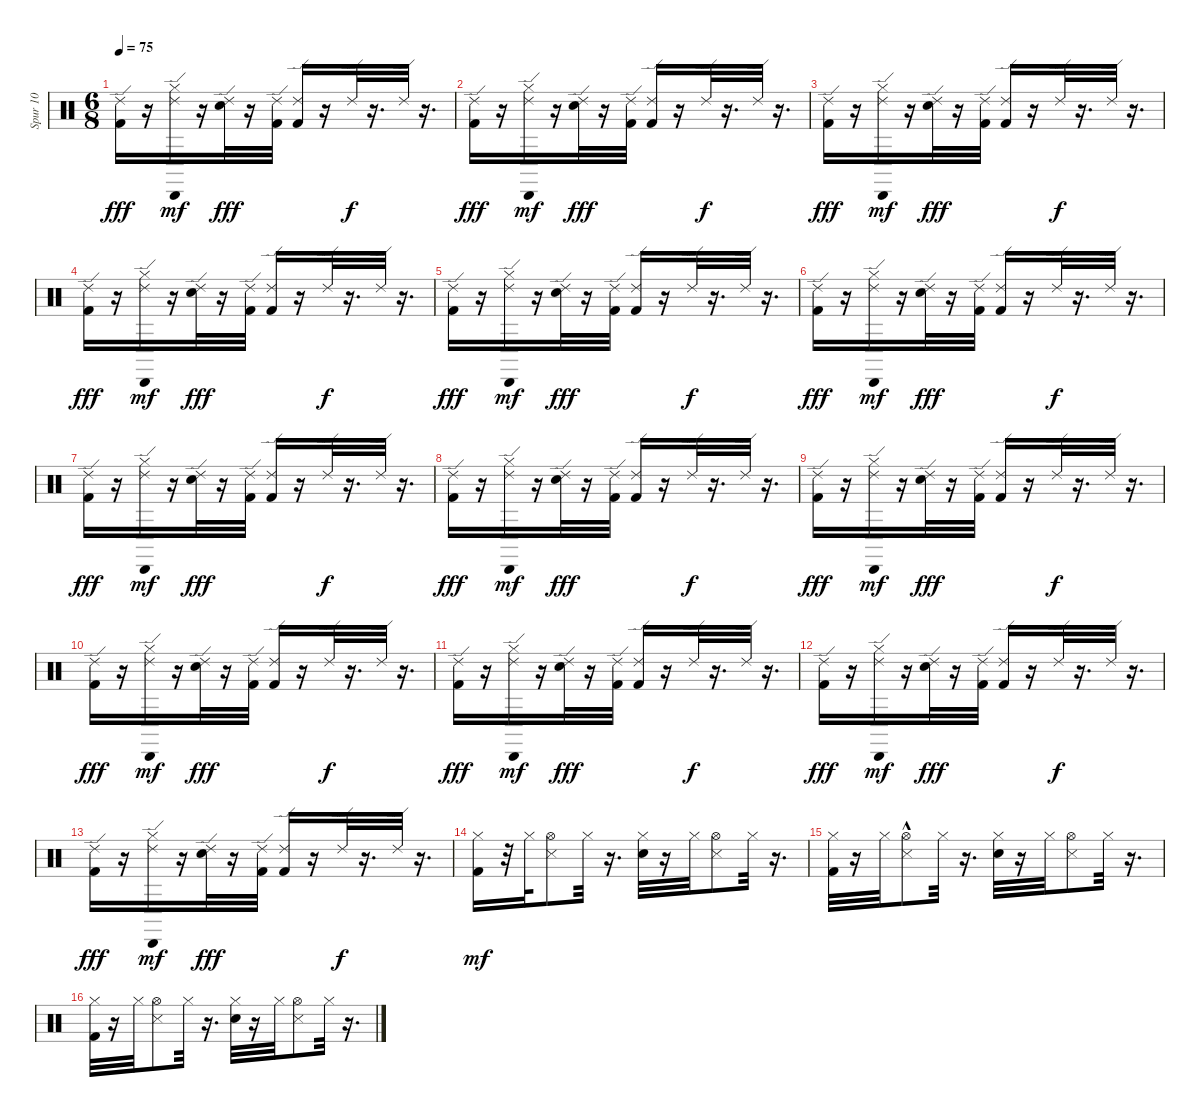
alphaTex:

\track ("Spur 10" "Spur 10") {instrument percussion}
\staff {score}
\articulation defaults
\ts (6 8)
\tempo 75
\clef neutral
\ks c
("Kick (hit) 2" "Ride (edge) 2").16{dy fff} r.16 ("Cabasa (hit)" "Hi-Hat (closed)" "Ride (edge) 2").16{dy mf} r.16 ("Snare (hit) 2" "Ride (edge) 2").32{dy fff} r.16 ("Kick (hit) 2" "Ride (edge) 2").32 ("Kick (hit) 2" "Ride (edge) 2").16 r.16 "Ride (edge) 2".32{dy f} r.16{d} "Ride (edge) 2".32 r.16{d} |
("Kick (hit) 2" "Ride (edge) 2").16{dy fff} r.16 ("Cabasa (hit)" "Hi-Hat (closed)" "Ride (edge) 2").16{dy mf} r.16 ("Snare (hit) 2" "Ride (edge) 2").32{dy fff} r.16 ("Kick (hit) 2" "Ride (edge) 2").32 ("Kick (hit) 2" "Ride (edge) 2").16 r.16 "Ride (edge) 2".32{dy f} r.16{d} "Ride (edge) 2".32 r.16{d} |
("Kick (hit) 2" "Ride (edge) 2").16{dy fff} r.16 ("Cabasa (hit)" "Hi-Hat (closed)" "Ride (edge) 2").16{dy mf} r.16 ("Snare (hit) 2" "Ride (edge) 2").32{dy fff} r.16 ("Kick (hit) 2" "Ride (edge) 2").32 ("Kick (hit) 2" "Ride (edge) 2").16 r.16 "Ride (edge) 2".32{dy f} r.16{d} "Ride (edge) 2".32 r.16{d} |
("Kick (hit) 2" "Ride (edge) 2").16{dy fff} r.16 ("Cabasa (hit)" "Hi-Hat (closed)" "Ride (edge) 2").16{dy mf} r.16 ("Snare (hit) 2" "Ride (edge) 2").32{dy fff} r.16 ("Kick (hit) 2" "Ride (edge) 2").32 ("Kick (hit) 2" "Ride (edge) 2").16 r.16 "Ride (edge) 2".32{dy f} r.16{d} "Ride (edge) 2".32 r.16{d} |
("Kick (hit) 2" "Ride (edge) 2").16{dy fff} r.16 ("Cabasa (hit)" "Hi-Hat (closed)" "Ride (edge) 2").16{dy mf} r.16 ("Snare (hit) 2" "Ride (edge) 2").32{dy fff} r.16 ("Kick (hit) 2" "Ride (edge) 2").32 ("Kick (hit) 2" "Ride (edge) 2").16 r.16 "Ride (edge) 2".32{dy f} r.16{d} "Ride (edge) 2".32 r.16{d} |
("Kick (hit) 2" "Ride (edge) 2").16{dy fff} r.16 ("Cabasa (hit)" "Hi-Hat (closed)" "Ride (edge) 2").16{dy mf} r.16 ("Snare (hit) 2" "Ride (edge) 2").32{dy fff} r.16 ("Kick (hit) 2" "Ride (edge) 2").32 ("Kick (hit) 2" "Ride (edge) 2").16 r.16 "Ride (edge) 2".32{dy f} r.16{d} "Ride (edge) 2".32 r.16{d} |
("Kick (hit) 2" "Ride (edge) 2").16{dy fff} r.16 ("Cabasa (hit)" "Hi-Hat (closed)" "Ride (edge) 2").16{dy mf} r.16 ("Snare (hit) 2" "Ride (edge) 2").32{dy fff} r.16 ("Kick (hit) 2" "Ride (edge) 2").32 ("Kick (hit) 2" "Ride (edge) 2").16 r.16 "Ride (edge) 2".32{dy f} r.16{d} "Ride (edge) 2".32 r.16{d} |
("Kick (hit) 2" "Ride (edge) 2").16{dy fff} r.16 ("Cabasa (hit)" "Hi-Hat (closed)" "Ride (edge) 2").16{dy mf} r.16 ("Snare (hit) 2" "Ride (edge) 2").32{dy fff} r.16 ("Kick (hit) 2" "Ride (edge) 2").32 ("Kick (hit) 2" "Ride (edge) 2").16 r.16 "Ride (edge) 2".32{dy f} r.16{d} "Ride (edge) 2".32 r.16{d} |
("Kick (hit) 2" "Ride (edge) 2").16{dy fff} r.16 ("Cabasa (hit)" "Hi-Hat (closed)" "Ride (edge) 2").16{dy mf} r.16 ("Snare (hit) 2" "Ride (edge) 2").32{dy fff} r.16 ("Kick (hit) 2" "Ride (edge) 2").32 ("Kick (hit) 2" "Ride (edge) 2").16 r.16 "Ride (edge) 2".32{dy f} r.16{d} "Ride (edge) 2".32 r.16{d} |
("Kick (hit) 2" "Ride (edge) 2").16{dy fff} r.16 ("Cabasa (hit)" "Hi-Hat (closed)" "Ride (edge) 2").16{dy mf} r.16 ("Snare (hit) 2" "Ride (edge) 2").32{dy fff} r.16 ("Kick (hit) 2" "Ride (edge) 2").32 ("Kick (hit) 2" "Ride (edge) 2").16 r.16 "Ride (edge) 2".32{dy f} r.16{d} "Ride (edge) 2".32 r.16{d} |
("Kick (hit) 2" "Ride (edge) 2").16{dy fff} r.16 ("Cabasa (hit)" "Hi-Hat (closed)" "Ride (edge) 2").16{dy mf} r.16 ("Snare (hit) 2" "Ride (edge) 2").32{dy fff} r.16 ("Kick (hit) 2" "Ride (edge) 2").32 ("Kick (hit) 2" "Ride (edge) 2").16 r.16 "Ride (edge) 2".32{dy f} r.16{d} "Ride (edge) 2".32 r.16{d} |
("Kick (hit) 2" "Ride (edge) 2").16{dy fff} r.16 ("Cabasa (hit)" "Hi-Hat (closed)" "Ride (edge) 2").16{dy mf} r.16 ("Snare (hit) 2" "Ride (edge) 2").32{dy fff} r.16 ("Kick (hit) 2" "Ride (edge) 2").32 ("Kick (hit) 2" "Ride (edge) 2").16 r.16 "Ride (edge) 2".32{dy f} r.16{d} "Ride (edge) 2".32 r.16{d} |
("Kick (hit) 2" "Ride (edge) 2").16{dy fff} r.16 ("Cabasa (hit)" "Hi-Hat (closed)" "Ride (edge) 2").16{dy mf} r.16 ("Snare (hit) 2" "Ride (edge) 2").32{dy fff} r.16 ("Kick (hit) 2" "Ride (edge) 2").32 ("Kick (hit) 2" "Ride (edge) 2").16 r.16 "Ride (edge) 2".32{dy f} r.16{d} "Ride (edge) 2".32 r.16{d} |
("Kick (hit) 2" "Hi-Hat (closed)").16{dy mf} r.32 "Hi-Hat (closed)".32 ("Snare (side stick) 3" "Hi-Hat (open)").8 "Hi-Hat (closed)".32 r.16{d} ("Snare (hit) 2" "Hi-Hat (closed)").32 r.16 "Hi-Hat (closed)".32 ("Snare (side stick) 3" "Hi-Hat (open)").8 "Hi-Hat (closed)".32 r.16{d} |
("Kick (hit) 2" "Hi-Hat (closed)").32 r.16 "Hi-Hat (closed)".32 ("Snare (side stick) 3"{hac} "Hi-Hat (open)").8 "Hi-Hat (closed)".32 r.16{d} ("Snare (hit) 2" "Hi-Hat (closed)").32 r.16 "Hi-Hat (closed)".32 ("Snare (side stick) 3" "Hi-Hat (open)").8 "Hi-Hat (closed)".32 r.16{d} |
("Kick (hit) 2" "Hi-Hat (closed)").32 r.16 "Hi-Hat (closed)".32 ("Snare (side stick) 3" "Hi-Hat (open)").8 "Hi-Hat (closed)".32 r.16{d} ("Snare (hit) 2" "Hi-Hat (closed)").32 r.16 "Hi-Hat (closed)".32 ("Snare (side stick) 3" "Hi-Hat (open)").8 "Hi-Hat (closed)".32 r.16{d}
